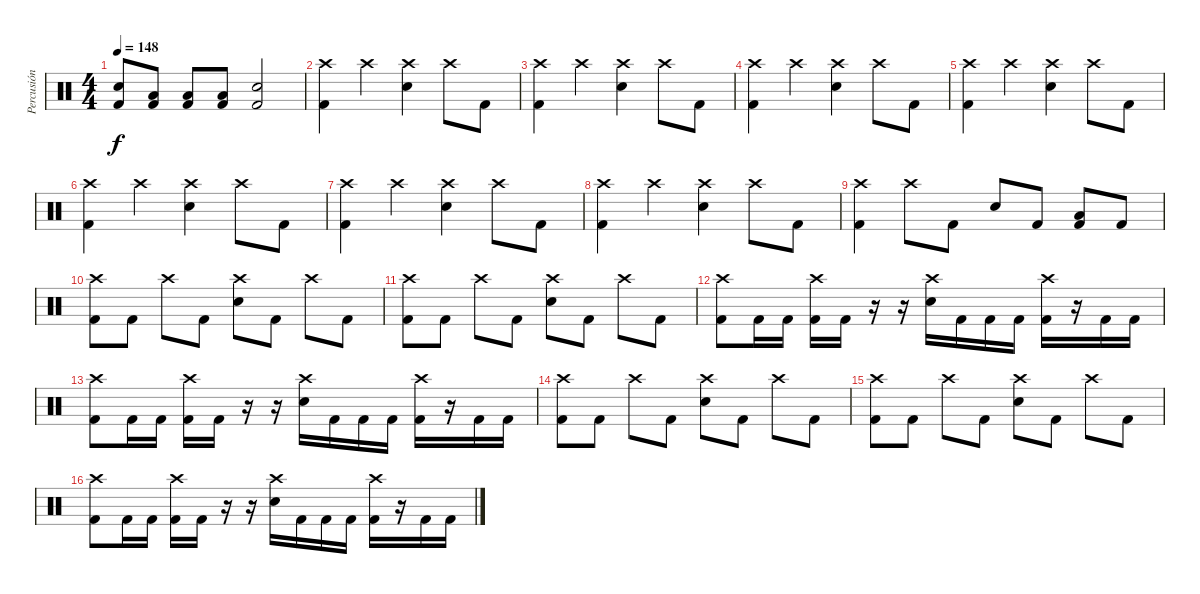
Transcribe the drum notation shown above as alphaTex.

\track ("Percusión" "Percusión") {instrument percussion}
\staff {score}
\articulation defaults
\ts (4 4)
\tempo 148
\clef neutral
\ks c
("Electric Snare (hit)" "Kick (hit) 2").8{dy f} ("Low Tom (hit)" "Kick (hit) 2").8 ("Low Tom (hit)" "Kick (hit) 2").8 ("Low Tom (hit)" "Kick (hit) 2").8 ("Electric Snare (hit)" "Kick (hit) 2").2 |
("Crash high (hit)" "Kick (hit) 2").4 "Crash high (hit)".4 ("Crash high (hit)" "Electric Snare (hit)").4 "Crash high (hit)".8 "Kick (hit) 2".8 |
("Crash high (hit)" "Kick (hit) 2").4 "Crash high (hit)".4 ("Crash high (hit)" "Electric Snare (hit)").4 "Crash high (hit)".8 "Kick (hit) 2".8 |
("Crash high (hit)" "Kick (hit) 2").4 "Crash high (hit)".4 ("Crash high (hit)" "Electric Snare (hit)").4 "Crash high (hit)".8 "Kick (hit) 2".8 |
("Crash high (hit)" "Kick (hit) 2").4 "Crash high (hit)".4 ("Crash high (hit)" "Electric Snare (hit)").4 "Crash high (hit)".8 "Kick (hit) 2".8 |
("Crash high (hit)" "Kick (hit) 2").4 "Crash high (hit)".4 ("Crash high (hit)" "Electric Snare (hit)").4 "Crash high (hit)".8 "Kick (hit) 2".8 |
("Crash high (hit)" "Kick (hit) 2").4 "Crash high (hit)".4 ("Crash high (hit)" "Electric Snare (hit)").4 "Crash high (hit)".8 "Kick (hit) 2".8 |
("Crash high (hit)" "Kick (hit) 2").4 "Crash high (hit)".4 ("Crash high (hit)" "Electric Snare (hit)").4 "Crash high (hit)".8 "Kick (hit) 2".8 |
("Crash high (hit)" "Kick (hit) 2").4 "Crash high (hit)".8 "Kick (hit) 2".8 "Electric Snare (hit)".8 "Kick (hit) 2".8 ("Low Tom (hit)" "Kick (hit) 2").8 "Kick (hit) 2".8 |
("Crash high (hit)" "Kick (hit) 2").8 "Kick (hit) 2".8 "Crash high (hit)".8 "Kick (hit) 2".8 ("Crash high (hit)" "Electric Snare (hit)").8 "Kick (hit) 2".8 "Crash high (hit)".8 "Kick (hit) 2".8 |
("Crash high (hit)" "Kick (hit) 2").8 "Kick (hit) 2".8 "Crash high (hit)".8 "Kick (hit) 2".8 ("Crash high (hit)" "Electric Snare (hit)").8 "Kick (hit) 2".8 "Crash high (hit)".8 "Kick (hit) 2".8 |
("Crash high (hit)" "Kick (hit) 2").8 "Kick (hit) 2".16 "Kick (hit) 2".16 ("Crash high (hit)" "Kick (hit) 2").16 "Kick (hit) 2".16 r.16 r.16 ("Crash high (hit)" "Electric Snare (hit)").16 "Kick (hit) 2".16 "Kick (hit) 2".16 "Kick (hit) 2".16 ("Crash high (hit)" "Kick (hit) 2").16 r.16 "Kick (hit) 2".16 "Kick (hit) 2".16 |
("Crash high (hit)" "Kick (hit) 2").8 "Kick (hit) 2".16 "Kick (hit) 2".16 ("Crash high (hit)" "Kick (hit) 2").16 "Kick (hit) 2".16 r.16 r.16 ("Crash high (hit)" "Electric Snare (hit)").16 "Kick (hit) 2".16 "Kick (hit) 2".16 "Kick (hit) 2".16 ("Crash high (hit)" "Kick (hit) 2").16 r.16 "Kick (hit) 2".16 "Kick (hit) 2".16 |
("Crash high (hit)" "Kick (hit) 2").8 "Kick (hit) 2".8 "Crash high (hit)".8 "Kick (hit) 2".8 ("Crash high (hit)" "Electric Snare (hit)").8 "Kick (hit) 2".8 "Crash high (hit)".8 "Kick (hit) 2".8 |
("Crash high (hit)" "Kick (hit) 2").8 "Kick (hit) 2".8 "Crash high (hit)".8 "Kick (hit) 2".8 ("Crash high (hit)" "Electric Snare (hit)").8 "Kick (hit) 2".8 "Crash high (hit)".8 "Kick (hit) 2".8 |
("Crash high (hit)" "Kick (hit) 2").8 "Kick (hit) 2".16 "Kick (hit) 2".16 ("Crash high (hit)" "Kick (hit) 2").16 "Kick (hit) 2".16 r.16 r.16 ("Crash high (hit)" "Electric Snare (hit)").16 "Kick (hit) 2".16 "Kick (hit) 2".16 "Kick (hit) 2".16 ("Crash high (hit)" "Kick (hit) 2").16 r.16 "Kick (hit) 2".16 "Kick (hit) 2".16
